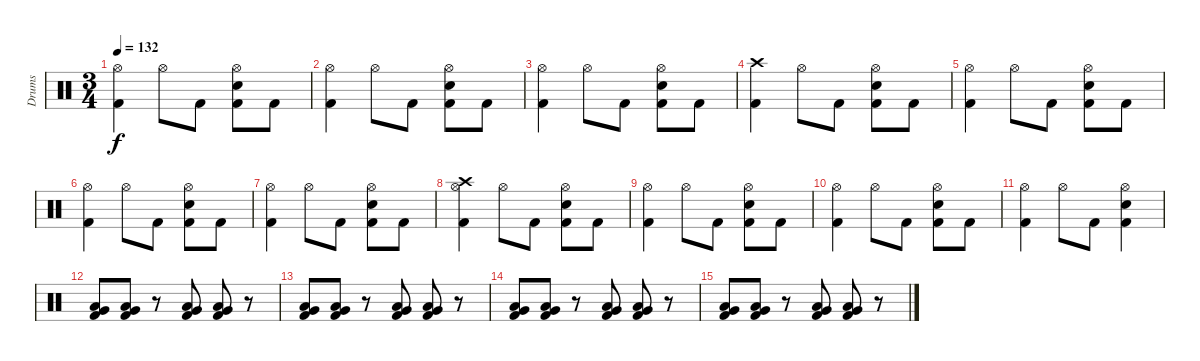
\track ("Drums" "Drums") {instrument percussion}
\staff {score}
\articulation defaults
\ts (3 4)
\tempo 132
\clef neutral
\ks c
("Hi-Hat (open)" "Kick (hit) 2").4{dy f} "Hi-Hat (open)".8 "Kick (hit) 2".8 ("Hi-Hat (open)" "Electric Snare (hit)" "Kick (hit) 2").8 "Kick (hit) 2".8 |
("Hi-Hat (open)" "Kick (hit) 2").4 "Hi-Hat (open)".8 "Kick (hit) 2".8 ("Hi-Hat (open)" "Electric Snare (hit)" "Kick (hit) 2").8 "Kick (hit) 2".8 |
("Hi-Hat (open)" "Kick (hit) 2").4 "Hi-Hat (open)".8 "Kick (hit) 2".8 ("Hi-Hat (open)" "Electric Snare (hit)" "Kick (hit) 2").8 "Kick (hit) 2".8 |
("Crash high (hit)" "Kick (hit) 2").4 "Hi-Hat (open)".8 "Kick (hit) 2".8 ("Hi-Hat (open)" "Electric Snare (hit)" "Kick (hit) 2").8 "Kick (hit) 2".8 |
("Hi-Hat (open)" "Kick (hit) 2").4 "Hi-Hat (open)".8 "Kick (hit) 2".8 ("Hi-Hat (open)" "Electric Snare (hit)" "Kick (hit) 2").8 "Kick (hit) 2".8 |
("Hi-Hat (open)" "Kick (hit) 2").4 "Hi-Hat (open)".8 "Kick (hit) 2".8 ("Hi-Hat (open)" "Electric Snare (hit)" "Kick (hit) 2").8 "Kick (hit) 2".8 |
("Hi-Hat (open)" "Kick (hit) 2").4 "Hi-Hat (open)".8 "Kick (hit) 2".8 ("Hi-Hat (open)" "Electric Snare (hit)" "Kick (hit) 2").8 "Kick (hit) 2".8 |
("Crash high (hit)" "Hi-Hat (open)" "Kick (hit) 2").4 "Hi-Hat (open)".8 "Kick (hit) 2".8 ("Hi-Hat (open)" "Electric Snare (hit)" "Kick (hit) 2").8 "Kick (hit) 2".8 |
("Hi-Hat (open)" "Kick (hit) 2").4 "Hi-Hat (open)".8 "Kick (hit) 2".8 ("Hi-Hat (open)" "Electric Snare (hit)" "Kick (hit) 2").8 "Kick (hit) 2".8 |
("Hi-Hat (open)" "Kick (hit) 2").4 "Hi-Hat (open)".8 "Kick (hit) 2".8 ("Hi-Hat (open)" "Electric Snare (hit)" "Kick (hit) 2").8 "Kick (hit) 2".8 |
("Hi-Hat (open)" "Kick (hit) 2").4 "Hi-Hat (open)".8 "Kick (hit) 2".8 ("Hi-Hat (open)" "Electric Snare (hit)" "Kick (hit) 2").4 |
("Very Low Tom (hit)" "Low Floor Tom (hit)" "Kick (hit) 2").8 ("Very Low Tom (hit)" "Low Floor Tom (hit)" "Kick (hit) 2").8 r.8 ("Very Low Tom (hit)" "Low Floor Tom (hit)" "Kick (hit) 2").8 ("Very Low Tom (hit)" "Low Floor Tom (hit)" "Kick (hit) 2").8 r.8 |
("Very Low Tom (hit)" "Low Floor Tom (hit)" "Kick (hit) 2").8 ("Very Low Tom (hit)" "Low Floor Tom (hit)" "Kick (hit) 2").8 r.8 ("Very Low Tom (hit)" "Low Floor Tom (hit)" "Kick (hit) 2").8 ("Very Low Tom (hit)" "Low Floor Tom (hit)" "Kick (hit) 2").8 r.8 |
("Very Low Tom (hit)" "Low Floor Tom (hit)" "Kick (hit) 2").8 ("Very Low Tom (hit)" "Low Floor Tom (hit)" "Kick (hit) 2").8 r.8 ("Very Low Tom (hit)" "Low Floor Tom (hit)" "Kick (hit) 2").8 ("Very Low Tom (hit)" "Low Floor Tom (hit)" "Kick (hit) 2").8 r.8 |
("Very Low Tom (hit)" "Low Floor Tom (hit)" "Kick (hit) 2").8 ("Very Low Tom (hit)" "Low Floor Tom (hit)" "Kick (hit) 2").8 r.8 ("Very Low Tom (hit)" "Low Floor Tom (hit)" "Kick (hit) 2").8 ("Very Low Tom (hit)" "Low Floor Tom (hit)" "Kick (hit) 2").8 r.8
